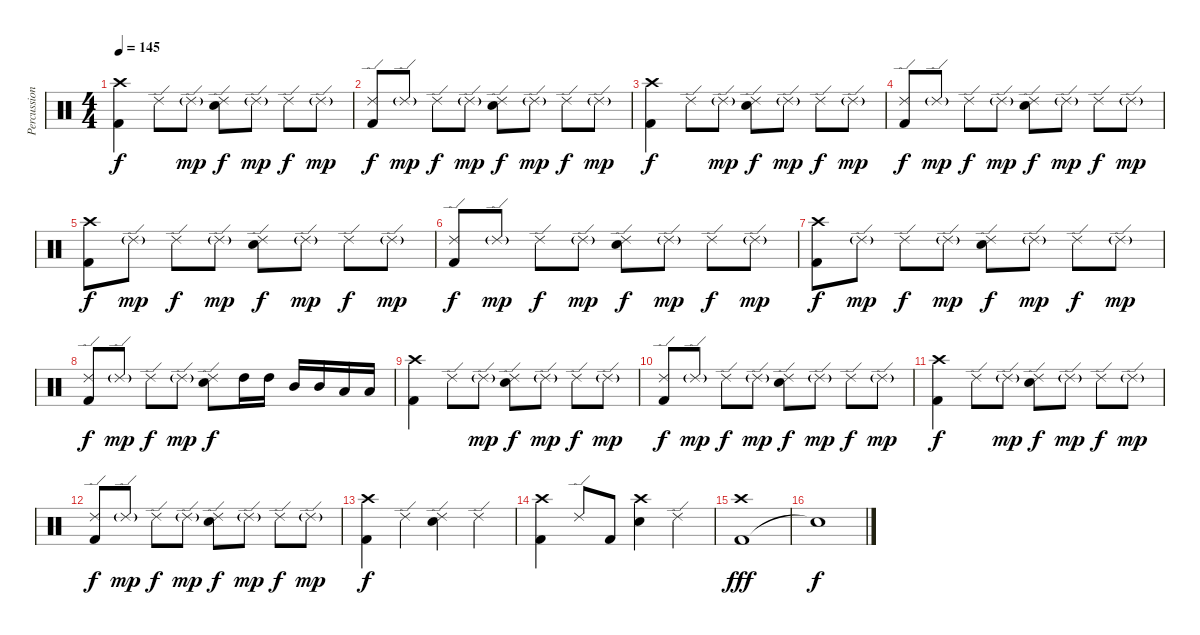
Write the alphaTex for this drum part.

\track ("Percussion" "Percussion") {instrument percussion}
\staff {score}
\articulation defaults
\ts (4 4)
\tempo 145
\clef neutral
\ks c
("Kick (hit) 2" "Crash high (hit)").4{dy f} "Ride (edge) 2".8 "Ride (edge) 2"{g}.8{dy mp} ("Electric Snare (hit)" "Ride (edge) 2").8{dy f} "Ride (edge) 2"{g}.8{dy mp} "Ride (edge) 2".8{dy f} "Ride (edge) 2"{g}.8{dy mp} |
("Kick (hit) 2" "Ride (edge) 2").8{dy f} "Ride (edge) 2"{g}.8{dy mp} "Ride (edge) 2".8{dy f} "Ride (edge) 2"{g}.8{dy mp} ("Electric Snare (hit)" "Ride (edge) 2").8{dy f} "Ride (edge) 2"{g}.8{dy mp} "Ride (edge) 2".8{dy f} "Ride (edge) 2"{g}.8{dy mp} |
("Kick (hit) 2" "Crash high (hit)").4{dy f} "Ride (edge) 2".8 "Ride (edge) 2"{g}.8{dy mp} ("Electric Snare (hit)" "Ride (edge) 2").8{dy f} "Ride (edge) 2"{g}.8{dy mp} "Ride (edge) 2".8{dy f} "Ride (edge) 2"{g}.8{dy mp} |
("Kick (hit) 2" "Ride (edge) 2").8{dy f} "Ride (edge) 2"{g}.8{dy mp} "Ride (edge) 2".8{dy f} "Ride (edge) 2"{g}.8{dy mp} ("Electric Snare (hit)" "Ride (edge) 2").8{dy f} "Ride (edge) 2"{g}.8{dy mp} "Ride (edge) 2".8{dy f} "Ride (edge) 2"{g}.8{dy mp} |
("Kick (hit) 2" "Crash high (hit)").8{dy f} "Ride (edge) 2"{g}.8{dy mp} "Ride (edge) 2".8{dy f} "Ride (edge) 2"{g}.8{dy mp} ("Electric Snare (hit)" "Ride (edge) 2").8{dy f} "Ride (edge) 2"{g}.8{dy mp} "Ride (edge) 2".8{dy f} "Ride (edge) 2"{g}.8{dy mp} |
("Kick (hit) 2" "Ride (edge) 2").8{dy f} "Ride (edge) 2"{g}.8{dy mp} "Ride (edge) 2".8{dy f} "Ride (edge) 2"{g}.8{dy mp} ("Electric Snare (hit)" "Ride (edge) 2").8{dy f} "Ride (edge) 2"{g}.8{dy mp} "Ride (edge) 2".8{dy f} "Ride (edge) 2"{g}.8{dy mp} |
("Kick (hit) 2" "Crash high (hit)").8{dy f} "Ride (edge) 2"{g}.8{dy mp} "Ride (edge) 2".8{dy f} "Ride (edge) 2"{g}.8{dy mp} ("Electric Snare (hit)" "Ride (edge) 2").8{dy f} "Ride (edge) 2"{g}.8{dy mp} "Ride (edge) 2".8{dy f} "Ride (edge) 2"{g}.8{dy mp} |
("Kick (hit) 2" "Ride (edge) 2").8{dy f} "Ride (edge) 2"{g}.8{dy mp} "Ride (edge) 2".8{dy f} "Ride (edge) 2"{g}.8{dy mp} ("Electric Snare (hit)" "Ride (edge) 2").8{dy f} "High Tom (hit)".16 "High Tom (hit)".16 "Mid Tom (hit)".16 "Mid Tom (hit)".16 "Low Tom (hit)".16 "Low Tom (hit)".16 |
("Kick (hit) 2" "Crash high (hit)").4 "Ride (edge) 2".8 "Ride (edge) 2"{g}.8{dy mp} ("Electric Snare (hit)" "Ride (edge) 2").8{dy f} "Ride (edge) 2"{g}.8{dy mp} "Ride (edge) 2".8{dy f} "Ride (edge) 2"{g}.8{dy mp} |
("Kick (hit) 2" "Ride (edge) 2").8{dy f} "Ride (edge) 2"{g}.8{dy mp} "Ride (edge) 2".8{dy f} "Ride (edge) 2"{g}.8{dy mp} ("Electric Snare (hit)" "Ride (edge) 2").8{dy f} "Ride (edge) 2"{g}.8{dy mp} "Ride (edge) 2".8{dy f} "Ride (edge) 2"{g}.8{dy mp} |
("Kick (hit) 2" "Crash high (hit)").4{dy f} "Ride (edge) 2".8 "Ride (edge) 2"{g}.8{dy mp} ("Electric Snare (hit)" "Ride (edge) 2").8{dy f} "Ride (edge) 2"{g}.8{dy mp} "Ride (edge) 2".8{dy f} "Ride (edge) 2"{g}.8{dy mp} |
("Kick (hit) 2" "Ride (edge) 2").8{dy f} "Ride (edge) 2"{g}.8{dy mp} "Ride (edge) 2".8{dy f} "Ride (edge) 2"{g}.8{dy mp} ("Electric Snare (hit)" "Ride (edge) 2").8{dy f} "Ride (edge) 2"{g}.8{dy mp} "Ride (edge) 2".8{dy f} "Ride (edge) 2"{g}.8{dy mp} |
("Kick (hit) 2" "Crash high (hit)").4{dy f} "Ride (edge) 2".4 ("Electric Snare (hit)" "Ride (edge) 2").4 "Ride (edge) 2".4 |
("Kick (hit) 2" "Crash high (hit)").4 "Ride (edge) 2".8 "Kick (hit) 2".8 ("Electric Snare (hit)" "Crash high (hit)").4 "Ride (edge) 2".4 |
("Kick (hit) 2" "Crash high (hit)").1{dy fff} |
"Snare (hit)"{t}.1{dy f}
